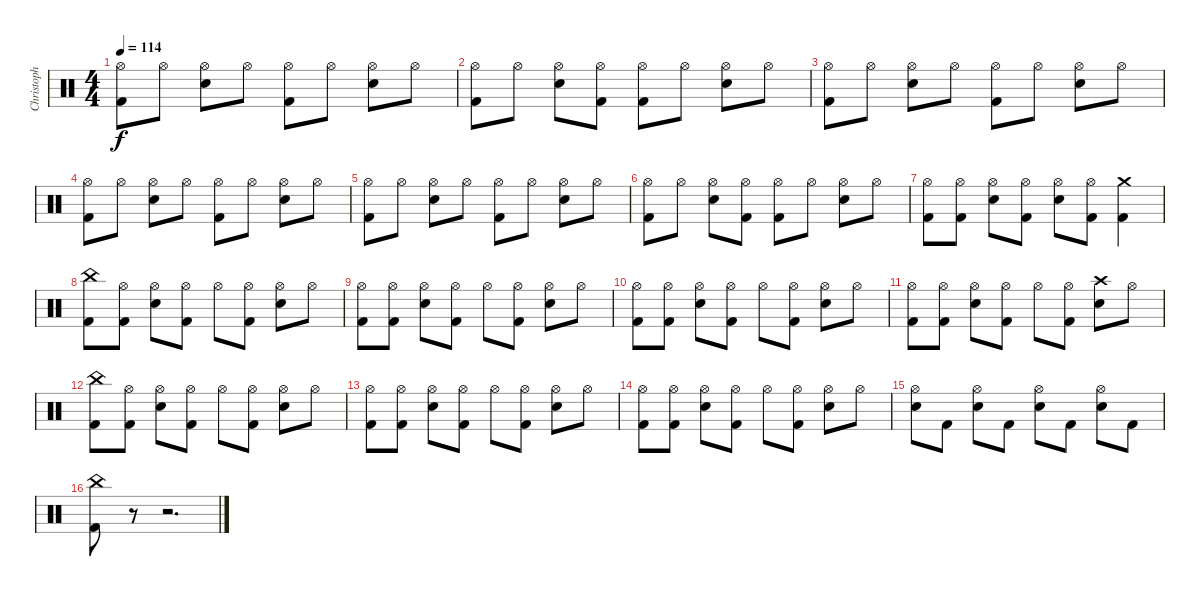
\track ("Christoph" "Christoph") {instrument percussion}
\staff {score}
\articulation defaults
\ts (4 4)
\tempo 114
\clef neutral
\ks c
("Hi-Hat (open)" "Kick (hit) 2").8{dy f} "Hi-Hat (open)".8 ("Hi-Hat (open)" "Electric Snare (hit)").8 "Hi-Hat (open)".8 ("Hi-Hat (open)" "Kick (hit) 2").8 "Hi-Hat (open)".8 ("Hi-Hat (open)" "Electric Snare (hit)").8 "Hi-Hat (open)".8 |
("Hi-Hat (open)" "Kick (hit) 2").8 "Hi-Hat (open)".8 ("Hi-Hat (open)" "Electric Snare (hit)").8 ("Hi-Hat (open)" "Kick (hit) 2").8 ("Hi-Hat (open)" "Kick (hit) 2").8 "Hi-Hat (open)".8 ("Hi-Hat (open)" "Electric Snare (hit)").8 "Hi-Hat (open)".8 |
("Hi-Hat (open)" "Kick (hit) 2").8 "Hi-Hat (open)".8 ("Hi-Hat (open)" "Electric Snare (hit)").8 "Hi-Hat (open)".8 ("Hi-Hat (open)" "Kick (hit) 2").8 "Hi-Hat (open)".8 ("Hi-Hat (open)" "Electric Snare (hit)").8 "Hi-Hat (open)".8 |
("Hi-Hat (open)" "Kick (hit) 2").8 "Hi-Hat (open)".8 ("Hi-Hat (open)" "Electric Snare (hit)").8 "Hi-Hat (open)".8 ("Hi-Hat (open)" "Kick (hit) 2").8 "Hi-Hat (open)".8 ("Hi-Hat (open)" "Electric Snare (hit)").8 "Hi-Hat (open)".8 |
("Hi-Hat (open)" "Kick (hit) 2").8 "Hi-Hat (open)".8 ("Hi-Hat (open)" "Electric Snare (hit)").8 "Hi-Hat (open)".8 ("Hi-Hat (open)" "Kick (hit) 2").8 "Hi-Hat (open)".8 ("Hi-Hat (open)" "Electric Snare (hit)").8 "Hi-Hat (open)".8 |
("Hi-Hat (open)" "Kick (hit) 2").8 "Hi-Hat (open)".8 ("Hi-Hat (open)" "Electric Snare (hit)").8 ("Hi-Hat (open)" "Kick (hit) 2").8 ("Hi-Hat (open)" "Kick (hit) 2").8 "Hi-Hat (open)".8 ("Hi-Hat (open)" "Electric Snare (hit)").8 "Hi-Hat (open)".8 |
("Hi-Hat (open)" "Kick (hit) 2").8 ("Hi-Hat (open)" "Kick (hit) 2").8 ("Hi-Hat (open)" "Electric Snare (hit)").8 ("Hi-Hat (open)" "Kick (hit) 2").8 ("Hi-Hat (open)" "Electric Snare (hit)").8 ("Hi-Hat (open)" "Kick (hit) 2").8 ("Crash medium (hit)" "Kick (hit) 2").4 |
("China (hit)" "Kick (hit) 2").8 ("Hi-Hat (open)" "Kick (hit) 2").8 ("Hi-Hat (open)" "Electric Snare (hit)").8 ("Hi-Hat (open)" "Kick (hit) 2").8 "Hi-Hat (open)".8 ("Hi-Hat (open)" "Kick (hit) 2").8 ("Hi-Hat (open)" "Electric Snare (hit)").8 "Hi-Hat (open)".8 |
("Hi-Hat (open)" "Kick (hit) 2").8 ("Hi-Hat (open)" "Kick (hit) 2").8 ("Hi-Hat (open)" "Electric Snare (hit)").8 ("Hi-Hat (open)" "Kick (hit) 2").8 "Hi-Hat (open)".8 ("Hi-Hat (open)" "Kick (hit) 2").8 ("Hi-Hat (open)" "Electric Snare (hit)").8 "Hi-Hat (open)".8 |
("Hi-Hat (open)" "Kick (hit) 2").8 ("Hi-Hat (open)" "Kick (hit) 2").8 ("Hi-Hat (open)" "Electric Snare (hit)").8 ("Hi-Hat (open)" "Kick (hit) 2").8 "Hi-Hat (open)".8 ("Hi-Hat (open)" "Kick (hit) 2").8 ("Hi-Hat (open)" "Electric Snare (hit)").8 "Hi-Hat (open)".8 |
("Hi-Hat (open)" "Kick (hit) 2").8 ("Hi-Hat (open)" "Kick (hit) 2").8 ("Hi-Hat (open)" "Electric Snare (hit)").8 ("Hi-Hat (open)" "Kick (hit) 2").8 "Hi-Hat (open)".8 ("Hi-Hat (open)" "Kick (hit) 2").8 ("Crash high (hit)" "Electric Snare (hit)").8 "Hi-Hat (open)".8 |
("China (hit)" "Kick (hit) 2").8 ("Hi-Hat (open)" "Kick (hit) 2").8 ("Hi-Hat (open)" "Electric Snare (hit)").8 ("Hi-Hat (open)" "Kick (hit) 2").8 "Hi-Hat (open)".8 ("Hi-Hat (open)" "Kick (hit) 2").8 ("Hi-Hat (open)" "Electric Snare (hit)").8 "Hi-Hat (open)".8 |
("Hi-Hat (open)" "Kick (hit) 2").8 ("Hi-Hat (open)" "Kick (hit) 2").8 ("Hi-Hat (open)" "Electric Snare (hit)").8 ("Hi-Hat (open)" "Kick (hit) 2").8 "Hi-Hat (open)".8 ("Hi-Hat (open)" "Kick (hit) 2").8 ("Hi-Hat (open)" "Electric Snare (hit)").8 "Hi-Hat (open)".8 |
("Hi-Hat (open)" "Kick (hit) 2").8 ("Hi-Hat (open)" "Kick (hit) 2").8 ("Hi-Hat (open)" "Electric Snare (hit)").8 ("Hi-Hat (open)" "Kick (hit) 2").8 "Hi-Hat (open)".8 ("Hi-Hat (open)" "Kick (hit) 2").8 ("Hi-Hat (open)" "Electric Snare (hit)").8 "Hi-Hat (open)".8 |
("Hi-Hat (open)" "Electric Snare (hit)").8 "Kick (hit) 2".8 ("Hi-Hat (open)" "Electric Snare (hit)").8 "Kick (hit) 2".8 ("Hi-Hat (open)" "Electric Snare (hit)").8 "Kick (hit) 2".8 ("Hi-Hat (open)" "Electric Snare (hit)").8 "Kick (hit) 2".8 |
("China (hit)" "Kick (hit) 2").8 r.8 r.2{d}
